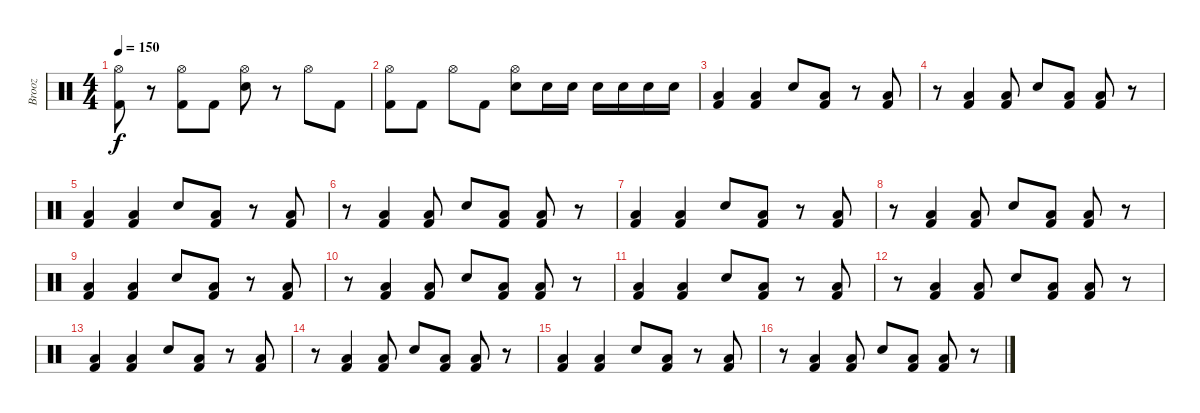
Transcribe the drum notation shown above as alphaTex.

\track ("Brooz" "Brooz") {instrument percussion}
\staff {score}
\articulation defaults
\ts (4 4)
\tempo 150
\clef neutral
\ks c
("Hi-Hat (open)" "Kick (hit) 2").8{dy f} r.8 ("Hi-Hat (open)" "Kick (hit) 2").8 "Kick (hit) 2".8 ("Hi-Hat (open)" "Electric Snare (hit)").8 r.8 "Hi-Hat (open)".8 "Kick (hit) 2".8 |
("Hi-Hat (open)" "Kick (hit) 2").8 "Kick (hit) 2".8 "Hi-Hat (open)".8 "Kick (hit) 2".8 ("Hi-Hat (open)" "Electric Snare (hit)").8 "Electric Snare (hit)".16 "Electric Snare (hit)".16 "Electric Snare (hit)".16 "Electric Snare (hit)".16 "Electric Snare (hit)".16 "Electric Snare (hit)".16 |
("Low Floor Tom (hit)" "Kick (hit) 2").4 ("Low Floor Tom (hit)" "Kick (hit) 2").4 "Electric Snare (hit)".8 ("Low Floor Tom (hit)" "Kick (hit) 2").8 r.8 ("Low Floor Tom (hit)" "Kick (hit) 2").8 |
r.8 ("Low Floor Tom (hit)" "Kick (hit) 2").4 ("Low Floor Tom (hit)" "Kick (hit) 2").8 "Electric Snare (hit)".8 ("Low Floor Tom (hit)" "Kick (hit) 2").8 ("Low Floor Tom (hit)" "Kick (hit) 2").8 r.8 |
("Low Floor Tom (hit)" "Kick (hit) 2").4 ("Low Floor Tom (hit)" "Kick (hit) 2").4 "Electric Snare (hit)".8 ("Low Floor Tom (hit)" "Kick (hit) 2").8 r.8 ("Low Floor Tom (hit)" "Kick (hit) 2").8 |
r.8 ("Low Floor Tom (hit)" "Kick (hit) 2").4 ("Low Floor Tom (hit)" "Kick (hit) 2").8 "Electric Snare (hit)".8 ("Low Floor Tom (hit)" "Kick (hit) 2").8 ("Low Floor Tom (hit)" "Kick (hit) 2").8 r.8 |
("Low Floor Tom (hit)" "Kick (hit) 2").4 ("Low Floor Tom (hit)" "Kick (hit) 2").4 "Electric Snare (hit)".8 ("Low Floor Tom (hit)" "Kick (hit) 2").8 r.8 ("Low Floor Tom (hit)" "Kick (hit) 2").8 |
r.8 ("Low Floor Tom (hit)" "Kick (hit) 2").4 ("Low Floor Tom (hit)" "Kick (hit) 2").8 "Electric Snare (hit)".8 ("Low Floor Tom (hit)" "Kick (hit) 2").8 ("Low Floor Tom (hit)" "Kick (hit) 2").8 r.8 |
("Low Floor Tom (hit)" "Kick (hit) 2").4 ("Low Floor Tom (hit)" "Kick (hit) 2").4 "Electric Snare (hit)".8 ("Low Floor Tom (hit)" "Kick (hit) 2").8 r.8 ("Low Floor Tom (hit)" "Kick (hit) 2").8 |
r.8 ("Low Floor Tom (hit)" "Kick (hit) 2").4 ("Low Floor Tom (hit)" "Kick (hit) 2").8 "Electric Snare (hit)".8 ("Low Floor Tom (hit)" "Kick (hit) 2").8 ("Low Floor Tom (hit)" "Kick (hit) 2").8 r.8 |
("Low Floor Tom (hit)" "Kick (hit) 2").4 ("Low Floor Tom (hit)" "Kick (hit) 2").4 "Electric Snare (hit)".8 ("Low Floor Tom (hit)" "Kick (hit) 2").8 r.8 ("Low Floor Tom (hit)" "Kick (hit) 2").8 |
r.8 ("Low Floor Tom (hit)" "Kick (hit) 2").4 ("Low Floor Tom (hit)" "Kick (hit) 2").8 "Electric Snare (hit)".8 ("Low Floor Tom (hit)" "Kick (hit) 2").8 ("Low Floor Tom (hit)" "Kick (hit) 2").8 r.8 |
("Low Floor Tom (hit)" "Kick (hit) 2").4 ("Low Floor Tom (hit)" "Kick (hit) 2").4 "Electric Snare (hit)".8 ("Low Floor Tom (hit)" "Kick (hit) 2").8 r.8 ("Low Floor Tom (hit)" "Kick (hit) 2").8 |
r.8 ("Low Floor Tom (hit)" "Kick (hit) 2").4 ("Low Floor Tom (hit)" "Kick (hit) 2").8 "Electric Snare (hit)".8 ("Low Floor Tom (hit)" "Kick (hit) 2").8 ("Low Floor Tom (hit)" "Kick (hit) 2").8 r.8 |
("Low Floor Tom (hit)" "Kick (hit) 2").4 ("Low Floor Tom (hit)" "Kick (hit) 2").4 "Electric Snare (hit)".8 ("Low Floor Tom (hit)" "Kick (hit) 2").8 r.8 ("Low Floor Tom (hit)" "Kick (hit) 2").8 |
r.8 ("Low Floor Tom (hit)" "Kick (hit) 2").4 ("Low Floor Tom (hit)" "Kick (hit) 2").8 "Electric Snare (hit)".8 ("Low Floor Tom (hit)" "Kick (hit) 2").8 ("Low Floor Tom (hit)" "Kick (hit) 2").8 r.8
